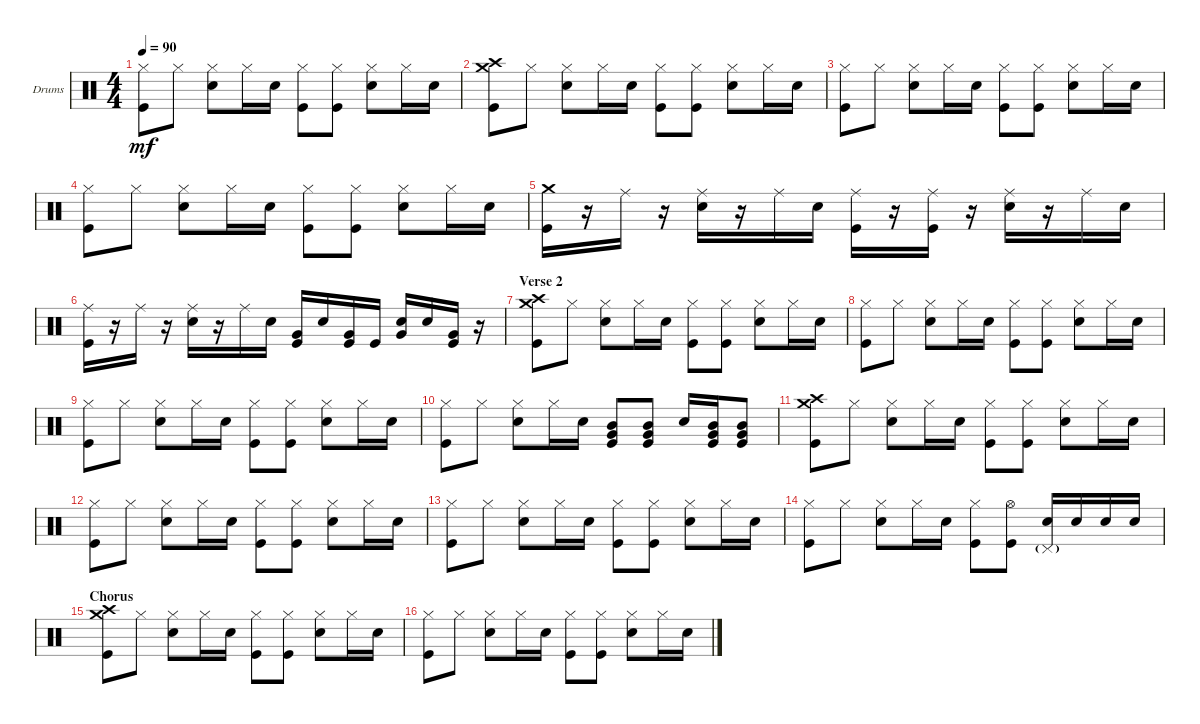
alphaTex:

\defaultSystemsLayout 4
\bracketExtendMode groupsimilarinstruments
\firstSystemTrackNameOrientation horizontal
\otherSystemsTrackNameOrientation horizontal
\track ("Drums" "Drums") {instrument percussion}
\staff {score}
\articulation defaults
\ts (4 4)
\tempo 90
\clef neutral
\ks c
("Hi-Hat (closed)" "Kick (hit)").8{dy mf} "Hi-Hat (closed)".8 ("Hi-Hat (closed)" "Snare (hit) 2").8 "Hi-Hat (closed)".16 "Snare (hit) 2".16 ("Hi-Hat (closed)" "Kick (hit)").8 ("Hi-Hat (closed)" "Kick (hit)").8 ("Hi-Hat (closed)" "Snare (hit) 2").8 "Hi-Hat (closed)".16 "Snare (hit) 2".16 |
("Crash medium (hit)" "Crash high (hit)" "Kick (hit)").8 "Hi-Hat (closed)".8 ("Hi-Hat (closed)" "Snare (hit) 2").8 "Hi-Hat (closed)".16 "Snare (hit) 2".16 ("Hi-Hat (closed)" "Kick (hit)").8 ("Hi-Hat (closed)" "Kick (hit)").8 ("Hi-Hat (closed)" "Snare (hit) 2").8 "Hi-Hat (closed)".16 "Snare (hit) 2".16 |
("Hi-Hat (closed)" "Kick (hit)").8 "Hi-Hat (closed)".8 ("Hi-Hat (closed)" "Snare (hit) 2").8 "Hi-Hat (closed)".16 "Snare (hit) 2".16 ("Hi-Hat (closed)" "Kick (hit)").8 ("Hi-Hat (closed)" "Kick (hit)").8 ("Hi-Hat (closed)" "Snare (hit) 2").8 "Hi-Hat (closed)".16 "Snare (hit) 2".16 |
("Hi-Hat (closed)" "Kick (hit)").8 "Hi-Hat (closed)".8 ("Hi-Hat (closed)" "Snare (hit) 2").8 "Hi-Hat (closed)".16 "Snare (hit) 2".16 ("Hi-Hat (closed)" "Kick (hit)").8 ("Hi-Hat (closed)" "Kick (hit)").8 ("Hi-Hat (closed)" "Snare (hit) 2").8 "Hi-Hat (closed)".16 "Snare (hit) 2".16 |
("Crash medium (hit)" "Kick (hit)").16 r.16 "Ride (middle)".16 r.16 ("Ride (middle)" "Snare (hit) 2").16 r.16 "Ride (middle)".16 "Snare (hit) 2".16 ("Ride (middle)" "Kick (hit)").16 r.16 ("Ride (middle)" "Kick (hit)").16 r.16 ("Ride (middle)" "Snare (hit) 2").16 r.16 "Ride (middle)".16 "Snare (hit) 2".16 |
("Ride (middle)" "Kick (hit)").16 r.16 "Ride (middle)".16 r.16 ("Ride (middle)" "Snare (hit) 2").16 r.16 "Ride (middle)".16 "Snare (hit) 2".16 ("Very Low Tom (hit)" "Kick (hit)").16 "Snare (hit) 2".16 ("Very Low Tom (hit)" "Kick (hit)").16 "Kick (hit)".16 ("Very Low Tom (hit)" "Snare (hit) 2").16 "Snare (hit) 2".16 ("Very Low Tom (hit)" "Kick (hit)").16 r.16 |
\section ("" "Verse 2")
("Crash medium (hit)" "Crash high (hit)" "Kick (hit)").8 "Hi-Hat (closed)".8 ("Hi-Hat (closed)" "Snare (hit) 2").8 "Hi-Hat (closed)".16 "Snare (hit) 2".16 ("Hi-Hat (closed)" "Kick (hit)").8 ("Hi-Hat (closed)" "Kick (hit)").8 ("Hi-Hat (closed)" "Snare (hit) 2").8 "Hi-Hat (closed)".16 "Snare (hit) 2".16 |
("Hi-Hat (closed)" "Kick (hit)").8 "Hi-Hat (closed)".8 ("Hi-Hat (closed)" "Snare (hit) 2").8 "Hi-Hat (closed)".16 "Snare (hit) 2".16 ("Hi-Hat (closed)" "Kick (hit)").8 ("Hi-Hat (closed)" "Kick (hit)").8 ("Hi-Hat (closed)" "Snare (hit) 2").8 "Hi-Hat (closed)".16 "Snare (hit) 2".16 |
("Hi-Hat (closed)" "Kick (hit)").8 "Hi-Hat (closed)".8 ("Hi-Hat (closed)" "Snare (hit) 2").8 "Hi-Hat (closed)".16 "Snare (hit) 2".16 ("Hi-Hat (closed)" "Kick (hit)").8 ("Hi-Hat (closed)" "Kick (hit)").8 ("Hi-Hat (closed)" "Snare (hit) 2").8 "Hi-Hat (closed)".16 "Snare (hit) 2".16 |
("Hi-Hat (closed)" "Kick (hit)").8 "Hi-Hat (closed)".8 ("Hi-Hat (closed)" "Snare (hit) 2").8 "Hi-Hat (closed)".16 "Snare (hit) 2".16 ("Mid Tom (hit)" "Very Low Tom (hit)" "Kick (hit)").8 ("Mid Tom (hit)" "Very Low Tom (hit)" "Kick (hit)").8 "Snare (hit) 2".16 ("Mid Tom (hit)" "Very Low Tom (hit)" "Kick (hit)").16 ("Mid Tom (hit)" "Very Low Tom (hit)" "Kick (hit)").8 |
("Crash medium (hit)" "Crash high (hit)" "Kick (hit)").8 "Hi-Hat (closed)".8 ("Hi-Hat (closed)" "Snare (hit) 2").8 "Hi-Hat (closed)".16 "Snare (hit) 2".16 ("Hi-Hat (closed)" "Kick (hit)").8 ("Hi-Hat (closed)" "Kick (hit)").8 ("Hi-Hat (closed)" "Snare (hit) 2").8 "Hi-Hat (closed)".16 "Snare (hit) 2".16 |
("Hi-Hat (closed)" "Kick (hit)").8 "Hi-Hat (closed)".8 ("Hi-Hat (closed)" "Snare (hit) 2").8 "Hi-Hat (closed)".16 "Snare (hit) 2".16 ("Hi-Hat (closed)" "Kick (hit)").8 ("Hi-Hat (closed)" "Kick (hit)").8 ("Hi-Hat (closed)" "Snare (hit) 2").8 "Hi-Hat (closed)".16 "Snare (hit) 2".16 |
("Hi-Hat (closed)" "Kick (hit)").8 "Hi-Hat (closed)".8 ("Hi-Hat (closed)" "Snare (hit) 2").8 "Hi-Hat (closed)".16 "Snare (hit) 2".16 ("Hi-Hat (closed)" "Kick (hit)").8 ("Hi-Hat (closed)" "Kick (hit)").8 ("Hi-Hat (closed)" "Snare (hit) 2").8 "Hi-Hat (closed)".16 "Snare (hit) 2".16 |
("Hi-Hat (closed)" "Kick (hit)").8 "Hi-Hat (closed)".8 ("Hi-Hat (closed)" "Snare (hit) 2").8 "Hi-Hat (closed)".16 "Snare (hit) 2".16 ("Hi-Hat (closed)" "Kick (hit)").8 ("Hi-Hat (open)" "Kick (hit)").8 ("Pedal Hi-Hat (hit)"{g} "Snare (hit) 2").16 "Snare (hit) 2".16 "Snare (hit) 2".16 "Snare (hit) 2".16 |
\section ("" "Chorus")
("Crash medium (hit)" "Crash high (hit)" "Kick (hit)").8 "Hi-Hat (closed)".8 ("Hi-Hat (closed)" "Snare (hit) 2").8 "Hi-Hat (closed)".16 "Snare (hit) 2".16 ("Hi-Hat (closed)" "Kick (hit)").8 ("Hi-Hat (closed)" "Kick (hit)").8 ("Hi-Hat (closed)" "Snare (hit) 2").8 "Hi-Hat (closed)".16 "Snare (hit) 2".16 |
("Hi-Hat (closed)" "Kick (hit)").8 "Hi-Hat (closed)".8 ("Hi-Hat (closed)" "Snare (hit) 2").8 "Hi-Hat (closed)".16 "Snare (hit) 2".16 ("Hi-Hat (closed)" "Kick (hit)").8 ("Hi-Hat (closed)" "Kick (hit)").8 ("Hi-Hat (closed)" "Snare (hit) 2").8 "Hi-Hat (closed)".16 "Snare (hit) 2".16
